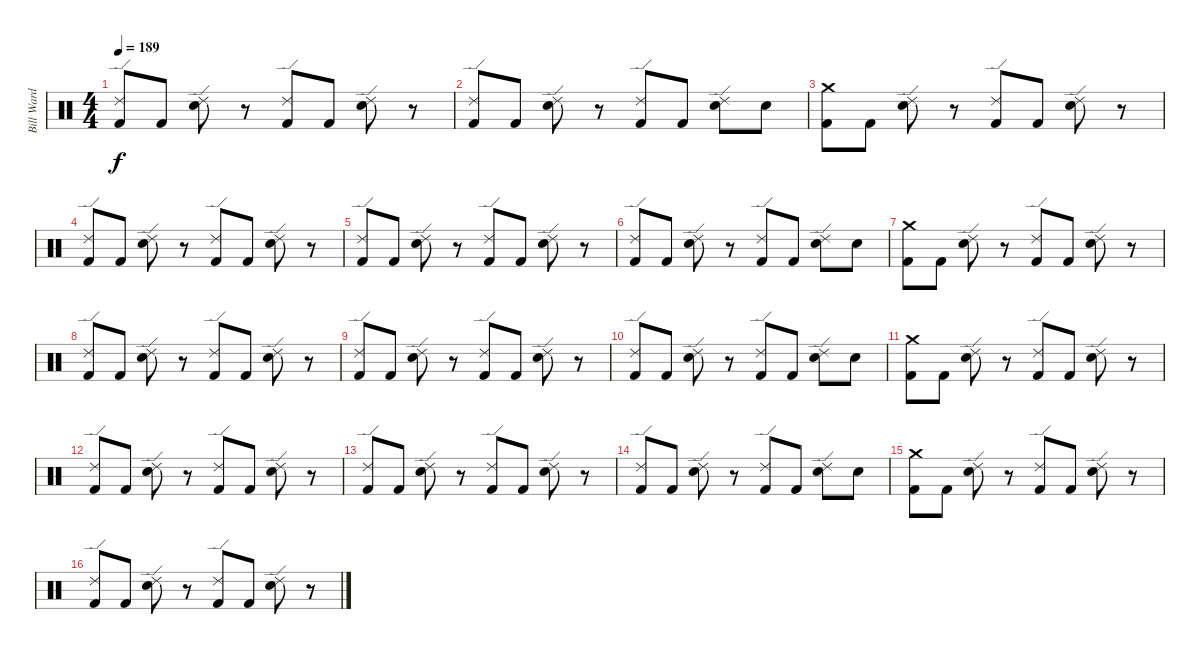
\track ("Bill Ward" "Bill Ward") {instrument percussion}
\staff {score}
\articulation defaults
\ts (4 4)
\tempo 189
\clef neutral
\ks c
("Ride (edge) 2" "Kick (hit) 2").8{dy f} "Kick (hit) 2".8 ("Electric Snare (hit)" "Ride (edge) 2").8 r.8 ("Ride (edge) 2" "Kick (hit) 2").8 "Kick (hit) 2".8 ("Electric Snare (hit)" "Ride (edge) 2").8 r.8 |
("Ride (edge) 2" "Kick (hit) 2").8 "Kick (hit) 2".8 ("Ride (edge) 2" "Electric Snare (hit)").8 r.8 ("Ride (edge) 2" "Kick (hit) 2").8 "Kick (hit) 2".8 ("Electric Snare (hit)" "Ride (edge) 2").8 "Electric Snare (hit)".8 |
("Crash medium (hit)" "Kick (hit) 2").8 "Kick (hit) 2".8 ("Ride (edge) 2" "Electric Snare (hit)").8 r.8 ("Ride (edge) 2" "Kick (hit) 2").8 "Kick (hit) 2".8 ("Ride (edge) 2" "Electric Snare (hit)").8 r.8 |
("Ride (edge) 2" "Kick (hit) 2").8 "Kick (hit) 2".8 ("Electric Snare (hit)" "Ride (edge) 2").8 r.8 ("Kick (hit) 2" "Ride (edge) 2").8 "Kick (hit) 2".8 ("Ride (edge) 2" "Electric Snare (hit)").8 r.8 |
("Kick (hit) 2" "Ride (edge) 2").8 "Kick (hit) 2".8 ("Electric Snare (hit)" "Ride (edge) 2").8 r.8 ("Kick (hit) 2" "Ride (edge) 2").8 "Kick (hit) 2".8 ("Electric Snare (hit)" "Ride (edge) 2").8 r.8 |
("Ride (edge) 2" "Kick (hit) 2").8 "Kick (hit) 2".8 ("Electric Snare (hit)" "Ride (edge) 2").8 r.8 ("Ride (edge) 2" "Kick (hit) 2").8 "Kick (hit) 2".8 ("Ride (edge) 2" "Electric Snare (hit)").8 "Electric Snare (hit)".8 |
("Kick (hit) 2" "Crash medium (hit)").8 "Kick (hit) 2".8 ("Ride (edge) 2" "Electric Snare (hit)").8 r.8 ("Kick (hit) 2" "Ride (edge) 2").8 "Kick (hit) 2".8 ("Electric Snare (hit)" "Ride (edge) 2").8 r.8 |
("Ride (edge) 2" "Kick (hit) 2").8 "Kick (hit) 2".8 ("Ride (edge) 2" "Electric Snare (hit)").8 r.8 ("Ride (edge) 2" "Kick (hit) 2").8 "Kick (hit) 2".8 ("Ride (edge) 2" "Electric Snare (hit)").8 r.8 |
("Ride (edge) 2" "Kick (hit) 2").8 "Kick (hit) 2".8 ("Ride (edge) 2" "Electric Snare (hit)").8 r.8 ("Ride (edge) 2" "Kick (hit) 2").8 "Kick (hit) 2".8 ("Ride (edge) 2" "Electric Snare (hit)").8 r.8 |
("Kick (hit) 2" "Ride (edge) 2").8 "Kick (hit) 2".8 ("Ride (edge) 2" "Electric Snare (hit)").8 r.8 ("Ride (edge) 2" "Kick (hit) 2").8 "Kick (hit) 2".8 ("Ride (edge) 2" "Electric Snare (hit)").8 "Electric Snare (hit)".8 |
("Kick (hit) 2" "Crash medium (hit)").8 "Kick (hit) 2".8 ("Electric Snare (hit)" "Ride (edge) 2").8 r.8 ("Ride (edge) 2" "Kick (hit) 2").8 "Kick (hit) 2".8 ("Electric Snare (hit)" "Ride (edge) 2").8 r.8 |
("Kick (hit) 2" "Ride (edge) 2").8 "Kick (hit) 2".8 ("Ride (edge) 2" "Electric Snare (hit)").8 r.8 ("Ride (edge) 2" "Kick (hit) 2").8 "Kick (hit) 2".8 ("Electric Snare (hit)" "Ride (edge) 2").8 r.8 |
("Ride (edge) 2" "Kick (hit) 2").8 "Kick (hit) 2".8 ("Ride (edge) 2" "Electric Snare (hit)").8 r.8 ("Ride (edge) 2" "Kick (hit) 2").8 "Kick (hit) 2".8 ("Electric Snare (hit)" "Ride (edge) 2").8 r.8 |
("Kick (hit) 2" "Ride (edge) 2").8 "Kick (hit) 2".8 ("Electric Snare (hit)" "Ride (edge) 2").8 r.8 ("Ride (edge) 2" "Kick (hit) 2").8 "Kick (hit) 2".8 ("Electric Snare (hit)" "Ride (edge) 2").8 "Electric Snare (hit)".8 |
("Kick (hit) 2" "Crash medium (hit)").8 "Kick (hit) 2".8 ("Ride (edge) 2" "Electric Snare (hit)").8 r.8 ("Ride (edge) 2" "Kick (hit) 2").8 "Kick (hit) 2".8 ("Electric Snare (hit)" "Ride (edge) 2").8 r.8 |
("Ride (edge) 2" "Kick (hit) 2").8 "Kick (hit) 2".8 ("Electric Snare (hit)" "Ride (edge) 2").8 r.8 ("Ride (edge) 2" "Kick (hit) 2").8 "Kick (hit) 2".8 ("Ride (edge) 2" "Electric Snare (hit)").8 r.8
